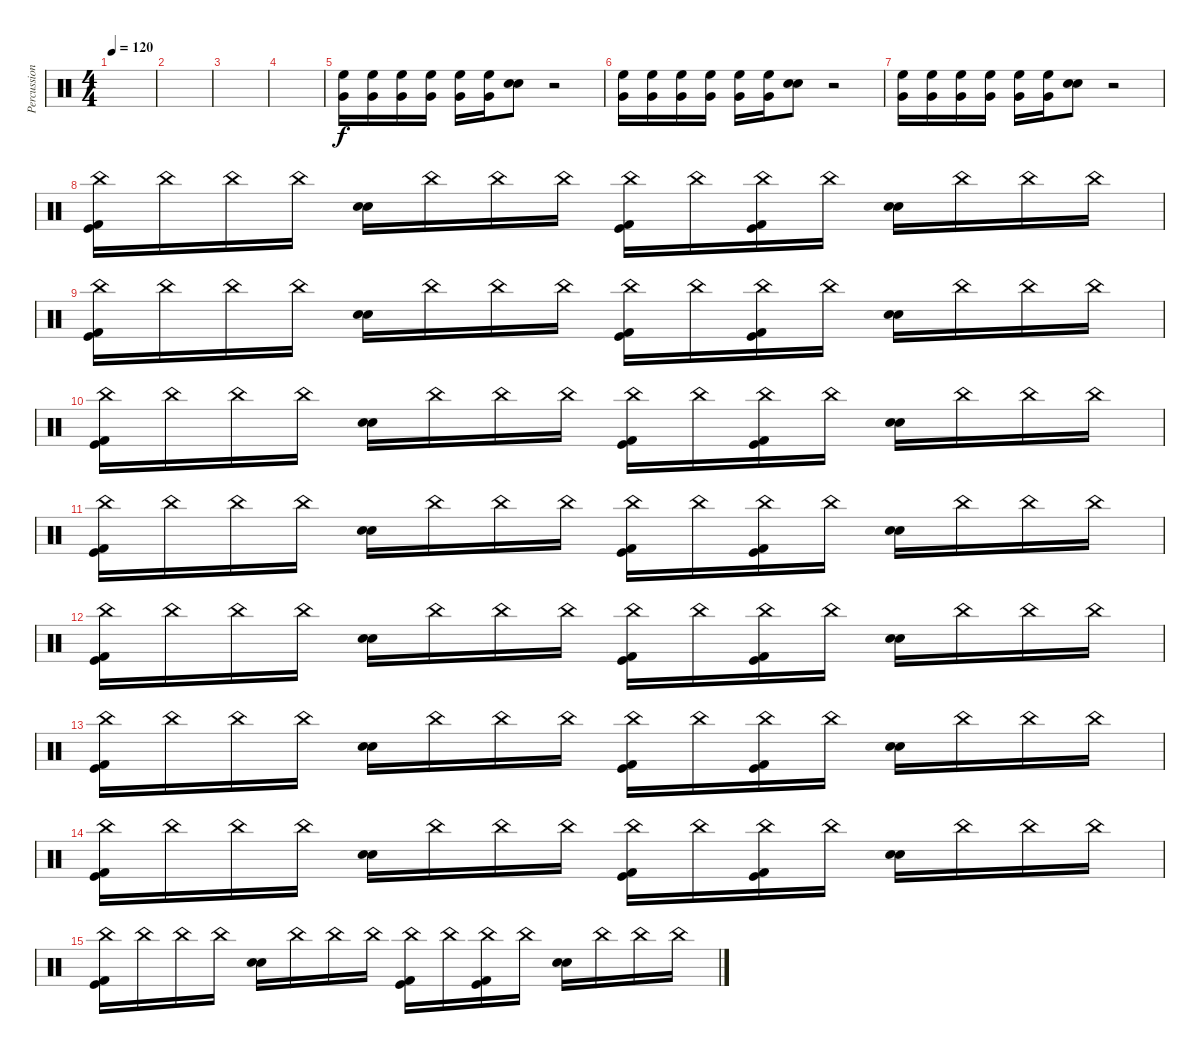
\track ("Percussions" "Percussion") {instrument percussion}
\staff {score}
\articulation defaults
\ts (4 4)
\tempo 120
\clef neutral
\ks c
|
|
|
|
("High Floor Tom (hit)" "Very Low Tom (hit)").16 ("High Floor Tom (hit)" "Very Low Tom (hit)").16 ("High Floor Tom (hit)" "Very Low Tom (hit)").16 ("High Floor Tom (hit)" "Very Low Tom (hit)").16 ("High Floor Tom (hit)" "Very Low Tom (hit)").16 ("High Floor Tom (hit)" "Very Low Tom (hit)").16 ("Electric Snare (hit)" "Snare (hit) 2").8 r.2 |
("High Floor Tom (hit)" "Very Low Tom (hit)").16 ("High Floor Tom (hit)" "Very Low Tom (hit)").16 ("High Floor Tom (hit)" "Very Low Tom (hit)").16 ("High Floor Tom (hit)" "Very Low Tom (hit)").16 ("High Floor Tom (hit)" "Very Low Tom (hit)").16 ("High Floor Tom (hit)" "Very Low Tom (hit)").16 ("Electric Snare (hit)" "Snare (hit) 2").8 r.2 |
("High Floor Tom (hit)" "Very Low Tom (hit)").16 ("High Floor Tom (hit)" "Very Low Tom (hit)").16 ("High Floor Tom (hit)" "Very Low Tom (hit)").16 ("High Floor Tom (hit)" "Very Low Tom (hit)").16 ("High Floor Tom (hit)" "Very Low Tom (hit)").16 ("High Floor Tom (hit)" "Very Low Tom (hit)").16 ("Electric Snare (hit)" "Snare (hit) 2").8 r.2 |
("China (hit)" "Kick (hit) 2" "Kick (hit)").16 "China (hit)".16 "China (hit)".16 "China (hit)".16 ("Electric Snare (hit)" "Electric Snare (hit)").16 "China (hit)".16 "China (hit)".16 "China (hit)".16 ("China (hit)" "Kick (hit) 2" "Kick (hit)").16 "China (hit)".16 ("China (hit)" "Kick (hit) 2" "Kick (hit)").16 "China (hit)".16 ("Electric Snare (hit)" "Electric Snare (hit)").16 "China (hit)".16 "China (hit)".16 "China (hit)".16 |
("China (hit)" "Kick (hit) 2" "Kick (hit)").16 "China (hit)".16 "China (hit)".16 "China (hit)".16 ("Electric Snare (hit)" "Electric Snare (hit)").16 "China (hit)".16 "China (hit)".16 "China (hit)".16 ("China (hit)" "Kick (hit) 2" "Kick (hit)").16 "China (hit)".16 ("China (hit)" "Kick (hit) 2" "Kick (hit)").16 "China (hit)".16 ("Electric Snare (hit)" "Electric Snare (hit)").16 "China (hit)".16 "China (hit)".16 "China (hit)".16 |
("China (hit)" "Kick (hit) 2" "Kick (hit)").16 "China (hit)".16 "China (hit)".16 "China (hit)".16 ("Electric Snare (hit)" "Electric Snare (hit)").16 "China (hit)".16 "China (hit)".16 "China (hit)".16 ("China (hit)" "Kick (hit) 2" "Kick (hit)").16 "China (hit)".16 ("China (hit)" "Kick (hit) 2" "Kick (hit)").16 "China (hit)".16 ("Electric Snare (hit)" "Electric Snare (hit)").16 "China (hit)".16 "China (hit)".16 "China (hit)".16 |
("China (hit)" "Kick (hit) 2" "Kick (hit)").16 "China (hit)".16 "China (hit)".16 "China (hit)".16 ("Electric Snare (hit)" "Electric Snare (hit)").16 "China (hit)".16 "China (hit)".16 "China (hit)".16 ("China (hit)" "Kick (hit) 2" "Kick (hit)").16 "China (hit)".16 ("China (hit)" "Kick (hit) 2" "Kick (hit)").16 "China (hit)".16 ("Electric Snare (hit)" "Electric Snare (hit)").16 "China (hit)".16 "China (hit)".16 "China (hit)".16 |
("China (hit)" "Kick (hit) 2" "Kick (hit)").16 "China (hit)".16 "China (hit)".16 "China (hit)".16 ("Electric Snare (hit)" "Electric Snare (hit)").16 "China (hit)".16 "China (hit)".16 "China (hit)".16 ("China (hit)" "Kick (hit) 2" "Kick (hit)").16 "China (hit)".16 ("China (hit)" "Kick (hit) 2" "Kick (hit)").16 "China (hit)".16 ("Electric Snare (hit)" "Electric Snare (hit)").16 "China (hit)".16 "China (hit)".16 "China (hit)".16 |
("China (hit)" "Kick (hit) 2" "Kick (hit)").16 "China (hit)".16 "China (hit)".16 "China (hit)".16 ("Electric Snare (hit)" "Electric Snare (hit)").16 "China (hit)".16 "China (hit)".16 "China (hit)".16 ("China (hit)" "Kick (hit) 2" "Kick (hit)").16 "China (hit)".16 ("China (hit)" "Kick (hit) 2" "Kick (hit)").16 "China (hit)".16 ("Electric Snare (hit)" "Electric Snare (hit)").16 "China (hit)".16 "China (hit)".16 "China (hit)".16 |
("China (hit)" "Kick (hit) 2" "Kick (hit)").16 "China (hit)".16 "China (hit)".16 "China (hit)".16 ("Electric Snare (hit)" "Electric Snare (hit)").16 "China (hit)".16 "China (hit)".16 "China (hit)".16 ("China (hit)" "Kick (hit) 2" "Kick (hit)").16 "China (hit)".16 ("China (hit)" "Kick (hit) 2" "Kick (hit)").16 "China (hit)".16 ("Electric Snare (hit)" "Electric Snare (hit)").16 "China (hit)".16 "China (hit)".16 "China (hit)".16 |
("China (hit)" "Kick (hit) 2" "Kick (hit)").16 "China (hit)".16 "China (hit)".16 "China (hit)".16 ("Electric Snare (hit)" "Electric Snare (hit)").16 "China (hit)".16 "China (hit)".16 "China (hit)".16 ("China (hit)" "Kick (hit) 2" "Kick (hit)").16 "China (hit)".16 ("China (hit)" "Kick (hit) 2" "Kick (hit)").16 "China (hit)".16 ("Electric Snare (hit)" "Electric Snare (hit)").16 "China (hit)".16 "China (hit)".16 "China (hit)".16
